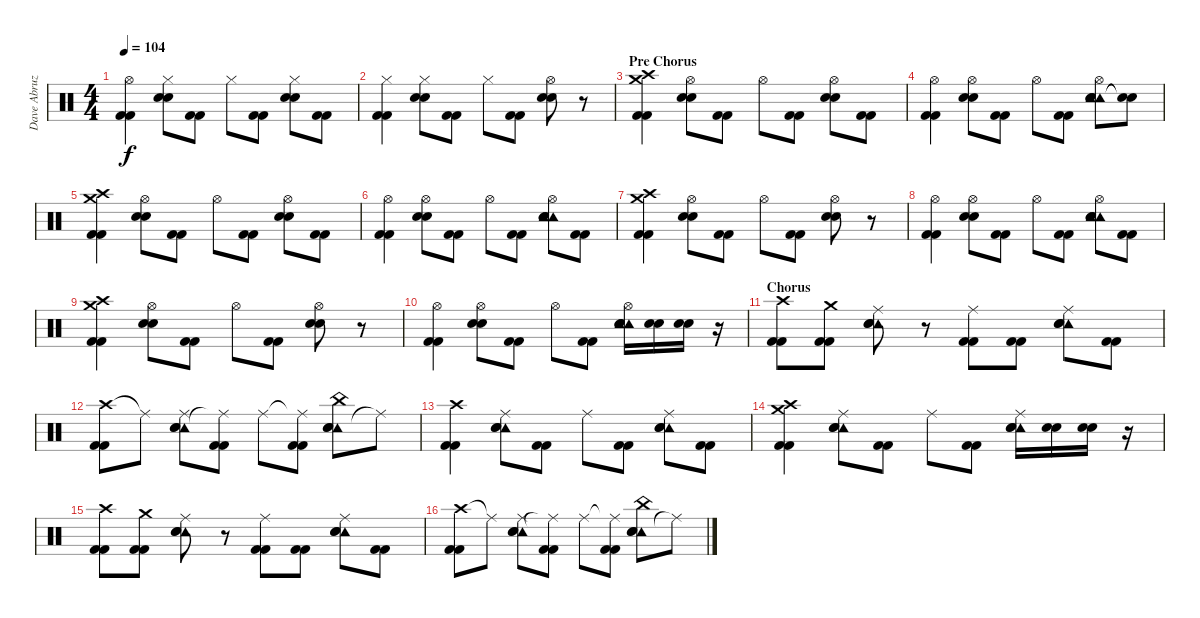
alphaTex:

\track ("Dave Abruzzese" "Dave Abruz") {instrument percussion}
\staff {score}
\articulation defaults
\ts (4 4)
\tempo 104
\clef neutral
\ks c
("Kick (hit) 2" "Kick (hit) 2" "Hi-Hat (open)").4{dy f} ("Electric Snare (hit)" "Electric Snare (hit)" "Hi-Hat (closed)").8 ("Kick (hit) 2" "Kick (hit) 2").8 "Hi-Hat (closed)".8 ("Kick (hit) 2" "Kick (hit) 2").8 ("Electric Snare (hit)" "Electric Snare (hit)" "Hi-Hat (closed)").8 ("Kick (hit) 2" "Kick (hit) 2").8 |
("Kick (hit) 2" "Kick (hit) 2" "Hi-Hat (closed)").4 ("Electric Snare (hit)" "Electric Snare (hit)" "Hi-Hat (closed)").8 ("Kick (hit) 2" "Kick (hit) 2").8 "Hi-Hat (closed)".8 ("Kick (hit) 2" "Kick (hit) 2").8 ("Electric Snare (hit)" "Electric Snare (hit)" "Hi-Hat (open)").8 r.8 |
\section ("" "Pre Chorus")
("Crash medium (hit)" "Kick (hit) 2" "Kick (hit) 2" "Crash high (hit)").4 ("Electric Snare (hit)" "Electric Snare (hit)" "Hi-Hat (open)").8 ("Kick (hit) 2" "Kick (hit) 2").8 "Hi-Hat (open)".8 ("Kick (hit) 2" "Kick (hit) 2").8 ("Electric Snare (hit)" "Electric Snare (hit)" "Hi-Hat (open)").8 ("Kick (hit) 2" "Kick (hit) 2").8 |
("Kick (hit) 2" "Kick (hit) 2" "Hi-Hat (open)").4 ("Electric Snare (hit)" "Electric Snare (hit)" "Hi-Hat (open)").8 ("Kick (hit) 2" "Kick (hit) 2").8 "Hi-Hat (open)".8 ("Kick (hit) 2" "Kick (hit) 2").8 ("Tambourine (hit)" "Tambourine (hit)" "Electric Snare (hit)" "Electric Snare (hit)" "Hi-Hat (open)").8 ("Snare (hit)"{t} "Snare (hit)"{t}).8 |
("Crash medium (hit)" "Kick (hit) 2" "Kick (hit) 2" "Crash high (hit)").4 ("Electric Snare (hit)" "Electric Snare (hit)" "Hi-Hat (open)").8 ("Kick (hit) 2" "Kick (hit) 2").8 "Hi-Hat (open)".8 ("Kick (hit) 2" "Kick (hit) 2").8 ("Electric Snare (hit)" "Electric Snare (hit)" "Hi-Hat (open)").8 ("Kick (hit) 2" "Kick (hit) 2").8 |
("Kick (hit) 2" "Kick (hit) 2" "Hi-Hat (open)").4 ("Electric Snare (hit)" "Electric Snare (hit)" "Hi-Hat (open)").8 ("Kick (hit) 2" "Kick (hit) 2").8 "Hi-Hat (open)".8 ("Kick (hit) 2" "Kick (hit) 2").8 ("Tambourine (hit)" "Tambourine (hit)" "Electric Snare (hit)" "Electric Snare (hit)" "Hi-Hat (open)").8 ("Kick (hit) 2" "Kick (hit) 2").8 |
("Crash medium (hit)" "Kick (hit) 2" "Kick (hit) 2" "Crash high (hit)").4 ("Electric Snare (hit)" "Electric Snare (hit)" "Hi-Hat (open)").8 ("Kick (hit) 2" "Kick (hit) 2").8 "Hi-Hat (open)".8 ("Kick (hit) 2" "Kick (hit) 2").8 ("Electric Snare (hit)" "Electric Snare (hit)" "Hi-Hat (open)").8 r.8 |
("Kick (hit) 2" "Kick (hit) 2" "Hi-Hat (open)").4 ("Electric Snare (hit)" "Electric Snare (hit)" "Hi-Hat (open)").8 ("Kick (hit) 2" "Kick (hit) 2").8 "Hi-Hat (open)".8 ("Kick (hit) 2" "Kick (hit) 2").8 ("Tambourine (hit)" "Tambourine (hit)" "Electric Snare (hit)" "Electric Snare (hit)" "Hi-Hat (open)").8 ("Kick (hit) 2" "Kick (hit) 2").8 |
("Crash medium (hit)" "Kick (hit) 2" "Kick (hit) 2" "Crash high (hit)").4 ("Electric Snare (hit)" "Electric Snare (hit)" "Hi-Hat (open)").8 ("Kick (hit) 2" "Kick (hit) 2").8 "Hi-Hat (open)".8 ("Kick (hit) 2" "Kick (hit) 2").8 ("Electric Snare (hit)" "Electric Snare (hit)" "Hi-Hat (open)").8 r.8 |
("Kick (hit) 2" "Kick (hit) 2" "Hi-Hat (open)").4 ("Electric Snare (hit)" "Electric Snare (hit)" "Hi-Hat (open)").8 ("Kick (hit) 2" "Kick (hit) 2").8 "Hi-Hat (open)".8 ("Kick (hit) 2" "Kick (hit) 2").8 ("Tambourine (hit)" "Tambourine (hit)" "Electric Snare (hit)" "Electric Snare (hit)" "Hi-Hat (open)").16 ("Electric Snare (hit)" "Electric Snare (hit)").16 ("Electric Snare (hit)" "Electric Snare (hit)").16 r.16 |
\section ("" "Chorus")
("Crash high (hit)" "Kick (hit) 2" "Kick (hit) 2").8 ("Crash medium (hit)" "Kick (hit) 2" "Kick (hit) 2").8 ("Tambourine (hit)" "Ride (middle)" "Electric Snare (hit)" "Electric Snare (hit)").8 r.8 ("Ride (middle)" "Kick (hit) 2" "Kick (hit) 2").8 ("Kick (hit) 2" "Kick (hit) 2").8 ("Tambourine (hit)" "Ride (middle)" "Electric Snare (hit)" "Electric Snare (hit)").8 ("Kick (hit) 2" "Kick (hit) 2").8 |
("Crash high (hit)" "Kick (hit) 2" "Kick (hit) 2").8 "Ride (middle)"{t}.8 ("Tambourine (hit)" "Ride (middle)" "Electric Snare (hit)" "Electric Snare (hit)").8 ("Ride (middle)"{t} "Kick (hit) 2" "Kick (hit) 2").8 "Ride (middle)".8 ("Ride (middle)"{t} "Kick (hit) 2" "Kick (hit) 2").8 ("Tambourine (hit)" "China (hit)" "Electric Snare (hit)" "Electric Snare (hit)").8 "Ride (middle)"{t}.8 |
("Kick (hit) 2" "Kick (hit) 2" "Crash high (hit)").4 ("Tambourine (hit)" "Electric Snare (hit)" "Electric Snare (hit)" "Ride (middle)").8 ("Kick (hit) 2" "Kick (hit) 2").8 "Ride (middle)".8 ("Kick (hit) 2" "Kick (hit) 2").8 ("Tambourine (hit)" "Electric Snare (hit)" "Electric Snare (hit)" "Ride (middle)").8 ("Kick (hit) 2" "Kick (hit) 2").8 |
("Crash medium (hit)" "Kick (hit) 2" "Kick (hit) 2" "Crash high (hit)").4 ("Tambourine (hit)" "Electric Snare (hit)" "Electric Snare (hit)" "Ride (middle)").8 ("Kick (hit) 2" "Kick (hit) 2").8 "Ride (middle)".8 ("Kick (hit) 2" "Kick (hit) 2").8 ("Tambourine (hit)" "Electric Snare (hit)" "Electric Snare (hit)" "Ride (middle)").16 ("Electric Snare (hit)" "Electric Snare (hit)").16 ("Electric Snare (hit)" "Electric Snare (hit)").16 r.16 |
("Crash high (hit)" "Kick (hit) 2" "Kick (hit) 2").8 ("Crash medium (hit)" "Kick (hit) 2" "Kick (hit) 2").8 ("Tambourine (hit)" "Ride (middle)" "Electric Snare (hit)" "Electric Snare (hit)").8 r.8 ("Ride (middle)" "Kick (hit) 2" "Kick (hit) 2").8 ("Kick (hit) 2" "Kick (hit) 2").8 ("Tambourine (hit)" "Ride (middle)" "Electric Snare (hit)" "Electric Snare (hit)").8 ("Kick (hit) 2" "Kick (hit) 2").8 |
("Crash high (hit)" "Kick (hit) 2" "Kick (hit) 2").8 "Ride (middle)"{t}.8 ("Tambourine (hit)" "Ride (middle)" "Electric Snare (hit)" "Electric Snare (hit)").8 ("Ride (middle)"{t} "Kick (hit) 2" "Kick (hit) 2").8 "Ride (middle)".8 ("Ride (middle)"{t} "Kick (hit) 2" "Kick (hit) 2").8 ("Tambourine (hit)" "China (hit)" "Electric Snare (hit)" "Electric Snare (hit)").8 "Ride (middle)"{t}.8
